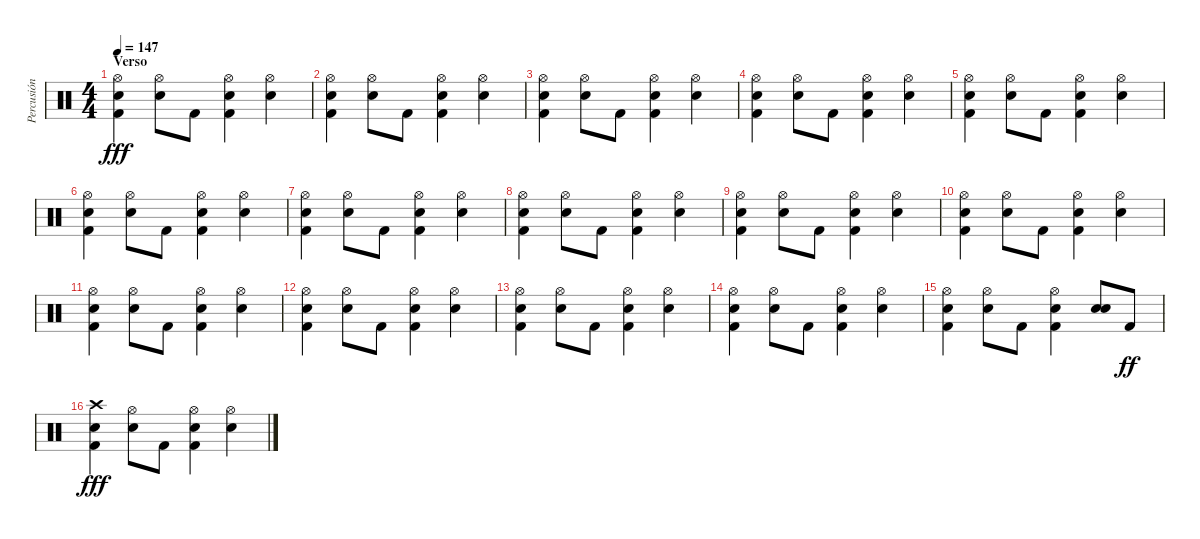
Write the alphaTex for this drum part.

\track ("Percusión" "Percusión") {instrument percussion}
\staff {score}
\articulation defaults
\ts (4 4)
\section ("" "Verso")
\tempo 147
\clef neutral
\ks c
("Hi-Hat (open)" "Electric Snare (hit)" "Kick (hit) 2").4{dy fff} ("Hi-Hat (open)" "Electric Snare (hit)").8 "Kick (hit) 2".8 ("Hi-Hat (open)" "Electric Snare (hit)" "Kick (hit) 2").4 ("Hi-Hat (open)" "Electric Snare (hit)").4 |
("Hi-Hat (open)" "Electric Snare (hit)" "Kick (hit) 2").4 ("Hi-Hat (open)" "Electric Snare (hit)").8 "Kick (hit) 2".8 ("Hi-Hat (open)" "Electric Snare (hit)" "Kick (hit) 2").4 ("Hi-Hat (open)" "Electric Snare (hit)").4 |
("Hi-Hat (open)" "Electric Snare (hit)" "Kick (hit) 2").4 ("Hi-Hat (open)" "Electric Snare (hit)").8 "Kick (hit) 2".8 ("Hi-Hat (open)" "Electric Snare (hit)" "Kick (hit) 2").4 ("Hi-Hat (open)" "Electric Snare (hit)").4 |
("Hi-Hat (open)" "Electric Snare (hit)" "Kick (hit) 2").4 ("Hi-Hat (open)" "Electric Snare (hit)").8 "Kick (hit) 2".8 ("Hi-Hat (open)" "Electric Snare (hit)" "Kick (hit) 2").4 ("Hi-Hat (open)" "Electric Snare (hit)").4 |
("Hi-Hat (open)" "Electric Snare (hit)" "Kick (hit) 2").4 ("Hi-Hat (open)" "Electric Snare (hit)").8 "Kick (hit) 2".8 ("Hi-Hat (open)" "Electric Snare (hit)" "Kick (hit) 2").4 ("Hi-Hat (open)" "Electric Snare (hit)").4 |
("Hi-Hat (open)" "Electric Snare (hit)" "Kick (hit) 2").4 ("Hi-Hat (open)" "Electric Snare (hit)").8 "Kick (hit) 2".8 ("Hi-Hat (open)" "Electric Snare (hit)" "Kick (hit) 2").4 ("Hi-Hat (open)" "Electric Snare (hit)").4 |
("Hi-Hat (open)" "Electric Snare (hit)" "Kick (hit) 2").4 ("Hi-Hat (open)" "Electric Snare (hit)").8 "Kick (hit) 2".8 ("Hi-Hat (open)" "Electric Snare (hit)" "Kick (hit) 2").4 ("Hi-Hat (open)" "Electric Snare (hit)").4 |
("Hi-Hat (open)" "Electric Snare (hit)" "Kick (hit) 2").4 ("Hi-Hat (open)" "Electric Snare (hit)").8 "Kick (hit) 2".8 ("Hi-Hat (open)" "Electric Snare (hit)" "Kick (hit) 2").4 ("Hi-Hat (open)" "Electric Snare (hit)").4 |
("Hi-Hat (open)" "Electric Snare (hit)" "Kick (hit) 2").4 ("Hi-Hat (open)" "Electric Snare (hit)").8 "Kick (hit) 2".8 ("Hi-Hat (open)" "Electric Snare (hit)" "Kick (hit) 2").4 ("Hi-Hat (open)" "Electric Snare (hit)").4 |
("Hi-Hat (open)" "Electric Snare (hit)" "Kick (hit) 2").4 ("Hi-Hat (open)" "Electric Snare (hit)").8 "Kick (hit) 2".8 ("Hi-Hat (open)" "Electric Snare (hit)" "Kick (hit) 2").4 ("Hi-Hat (open)" "Electric Snare (hit)").4 |
("Hi-Hat (open)" "Electric Snare (hit)" "Kick (hit) 2").4 ("Hi-Hat (open)" "Electric Snare (hit)").8 "Kick (hit) 2".8 ("Hi-Hat (open)" "Electric Snare (hit)" "Kick (hit) 2").4 ("Hi-Hat (open)" "Electric Snare (hit)").4 |
("Hi-Hat (open)" "Electric Snare (hit)" "Kick (hit) 2").4 ("Hi-Hat (open)" "Electric Snare (hit)").8 "Kick (hit) 2".8 ("Hi-Hat (open)" "Electric Snare (hit)" "Kick (hit) 2").4 ("Hi-Hat (open)" "Electric Snare (hit)").4 |
("Hi-Hat (open)" "Electric Snare (hit)" "Kick (hit) 2").4 ("Hi-Hat (open)" "Electric Snare (hit)").8 "Kick (hit) 2".8 ("Hi-Hat (open)" "Electric Snare (hit)" "Kick (hit) 2").4 ("Hi-Hat (open)" "Electric Snare (hit)").4 |
("Hi-Hat (open)" "Electric Snare (hit)" "Kick (hit) 2").4 ("Hi-Hat (open)" "Electric Snare (hit)").8 "Kick (hit) 2".8 ("Hi-Hat (open)" "Electric Snare (hit)" "Kick (hit) 2").4 ("Hi-Hat (open)" "Electric Snare (hit)").4 |
("Hi-Hat (open)" "Electric Snare (hit)" "Kick (hit) 2").4 ("Hi-Hat (open)" "Electric Snare (hit)").8 "Kick (hit) 2".8 ("Hi-Hat (open)" "Electric Snare (hit)" "Kick (hit) 2").4 ("Electric Snare (hit)" "Electric Snare (hit)").8{bd 240} "Kick (hit) 2".8{dy ff} |
("Crash high (hit)" "Electric Snare (hit)" "Kick (hit) 2").4{dy fff} ("Hi-Hat (open)" "Electric Snare (hit)").8 "Kick (hit) 2".8 ("Hi-Hat (open)" "Electric Snare (hit)" "Kick (hit) 2").4 ("Hi-Hat (open)" "Electric Snare (hit)").4
